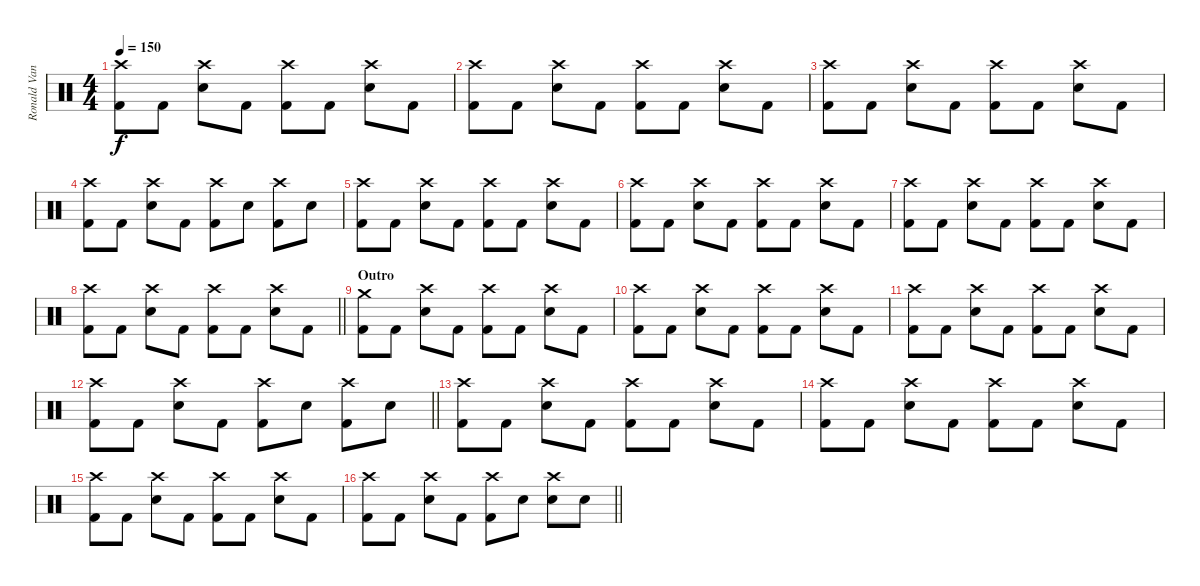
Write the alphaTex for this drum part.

\track ("Ronald Vanucci Jr (Drums)" "Ronald Van") {instrument percussion}
\staff {score}
\articulation defaults
\ts (4 4)
\section ("" "")
\tempo 150
\clef neutral
\ks c
("Crash high (hit)" "Kick (hit) 2").8{dy f} "Kick (hit) 2".8 ("Crash high (hit)" "Snare (hit) 2").8 "Kick (hit) 2".8 ("Crash high (hit)" "Kick (hit) 2").8 "Kick (hit) 2".8 ("Crash high (hit)" "Snare (hit) 2").8 "Kick (hit) 2".8 |
("Crash high (hit)" "Kick (hit) 2").8 "Kick (hit) 2".8 ("Crash high (hit)" "Snare (hit) 2").8 "Kick (hit) 2".8 ("Crash high (hit)" "Kick (hit) 2").8 "Kick (hit) 2".8 ("Crash high (hit)" "Snare (hit) 2").8 "Kick (hit) 2".8 |
("Crash high (hit)" "Kick (hit) 2").8 "Kick (hit) 2".8 ("Crash high (hit)" "Snare (hit) 2").8 "Kick (hit) 2".8 ("Crash high (hit)" "Kick (hit) 2").8 "Kick (hit) 2".8 ("Crash high (hit)" "Snare (hit) 2").8 "Kick (hit) 2".8 |
("Crash high (hit)" "Kick (hit) 2").8 "Kick (hit) 2".8 ("Crash high (hit)" "Snare (hit) 2").8 "Kick (hit) 2".8 ("Crash high (hit)" "Kick (hit) 2").8 "Snare (hit) 2".8 ("Crash high (hit)" "Kick (hit) 2").8 "Snare (hit) 2".8 |
("Crash high (hit)" "Kick (hit) 2").8 "Kick (hit) 2".8 ("Crash high (hit)" "Snare (hit) 2").8 "Kick (hit) 2".8 ("Crash high (hit)" "Kick (hit) 2").8 "Kick (hit) 2".8 ("Crash high (hit)" "Snare (hit) 2").8 "Kick (hit) 2".8 |
("Crash high (hit)" "Kick (hit) 2").8 "Kick (hit) 2".8 ("Crash high (hit)" "Snare (hit) 2").8 "Kick (hit) 2".8 ("Crash high (hit)" "Kick (hit) 2").8 "Kick (hit) 2".8 ("Crash high (hit)" "Snare (hit) 2").8 "Kick (hit) 2".8 |
("Crash high (hit)" "Kick (hit) 2").8 "Kick (hit) 2".8 ("Crash high (hit)" "Snare (hit) 2").8 "Kick (hit) 2".8 ("Crash high (hit)" "Kick (hit) 2").8 "Kick (hit) 2".8 ("Crash high (hit)" "Snare (hit) 2").8 "Kick (hit) 2".8 |
\barLineRight lightlight
("Crash high (hit)" "Kick (hit) 2").8 "Kick (hit) 2".8 ("Crash high (hit)" "Snare (hit) 2").8 "Kick (hit) 2".8 ("Crash high (hit)" "Kick (hit) 2").8 "Kick (hit) 2".8 ("Crash high (hit)" "Snare (hit) 2").8 "Kick (hit) 2".8 |
\section ("" "Outro")
("Crash medium (hit)" "Kick (hit) 2").8 "Kick (hit) 2".8 ("Crash high (hit)" "Snare (hit) 2").8 "Kick (hit) 2".8 ("Crash high (hit)" "Kick (hit) 2").8 "Kick (hit) 2".8 ("Crash high (hit)" "Snare (hit) 2").8 "Kick (hit) 2".8 |
("Crash high (hit)" "Kick (hit) 2").8 "Kick (hit) 2".8 ("Crash high (hit)" "Snare (hit) 2").8 "Kick (hit) 2".8 ("Crash high (hit)" "Kick (hit) 2").8 "Kick (hit) 2".8 ("Crash high (hit)" "Snare (hit) 2").8 "Kick (hit) 2".8 |
("Crash high (hit)" "Kick (hit) 2").8 "Kick (hit) 2".8 ("Crash high (hit)" "Snare (hit) 2").8 "Kick (hit) 2".8 ("Crash high (hit)" "Kick (hit) 2").8 "Kick (hit) 2".8 ("Crash high (hit)" "Snare (hit) 2").8 "Kick (hit) 2".8 |
\barLineRight lightlight
("Crash high (hit)" "Kick (hit) 2").8 "Kick (hit) 2".8 ("Crash high (hit)" "Snare (hit) 2").8 "Kick (hit) 2".8 ("Crash high (hit)" "Kick (hit) 2").8 "Snare (hit) 2".8 ("Crash high (hit)" "Kick (hit) 2").8 "Snare (hit) 2".8 |
("Crash high (hit)" "Kick (hit) 2").8 "Kick (hit) 2".8 ("Crash high (hit)" "Snare (hit) 2").8 "Kick (hit) 2".8 ("Crash high (hit)" "Kick (hit) 2").8 "Kick (hit) 2".8 ("Crash high (hit)" "Snare (hit) 2").8 "Kick (hit) 2".8 |
("Crash high (hit)" "Kick (hit) 2").8 "Kick (hit) 2".8 ("Crash high (hit)" "Snare (hit) 2").8 "Kick (hit) 2".8 ("Crash high (hit)" "Kick (hit) 2").8 "Kick (hit) 2".8 ("Crash high (hit)" "Snare (hit) 2").8 "Kick (hit) 2".8 |
("Crash high (hit)" "Kick (hit) 2").8 "Kick (hit) 2".8 ("Crash high (hit)" "Snare (hit) 2").8 "Kick (hit) 2".8 ("Crash high (hit)" "Kick (hit) 2").8 "Kick (hit) 2".8 ("Crash high (hit)" "Snare (hit) 2").8 "Kick (hit) 2".8 |
\barLineRight lightlight
("Crash high (hit)" "Kick (hit) 2").8 "Kick (hit) 2".8 ("Crash high (hit)" "Snare (hit) 2").8 "Kick (hit) 2".8 ("Crash high (hit)" "Kick (hit) 2").8 "Snare (hit) 2".8 ("Crash high (hit)" "Snare (hit) 2").8 "Snare (hit) 2".8
